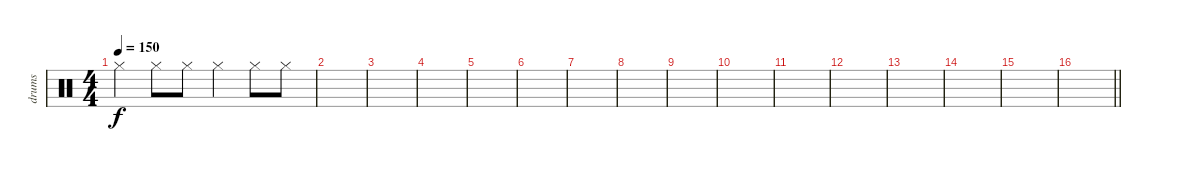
\track ("drums" "drums") {instrument percussion}
\staff {score}
\articulation defaults
\ts (4 4)
\tempo 150
\clef neutral
\ks c "Hi-Hat (closed)".4{dy f} "Hi-Hat (closed)".8 "Hi-Hat (closed)".8 "Hi-Hat (closed)".4 "Hi-Hat (closed)".8 "Hi-Hat (closed)".8
|
|
|
|
|
|
|
|
|
|
|
|
|
|
|
\barLineRight lightlight
